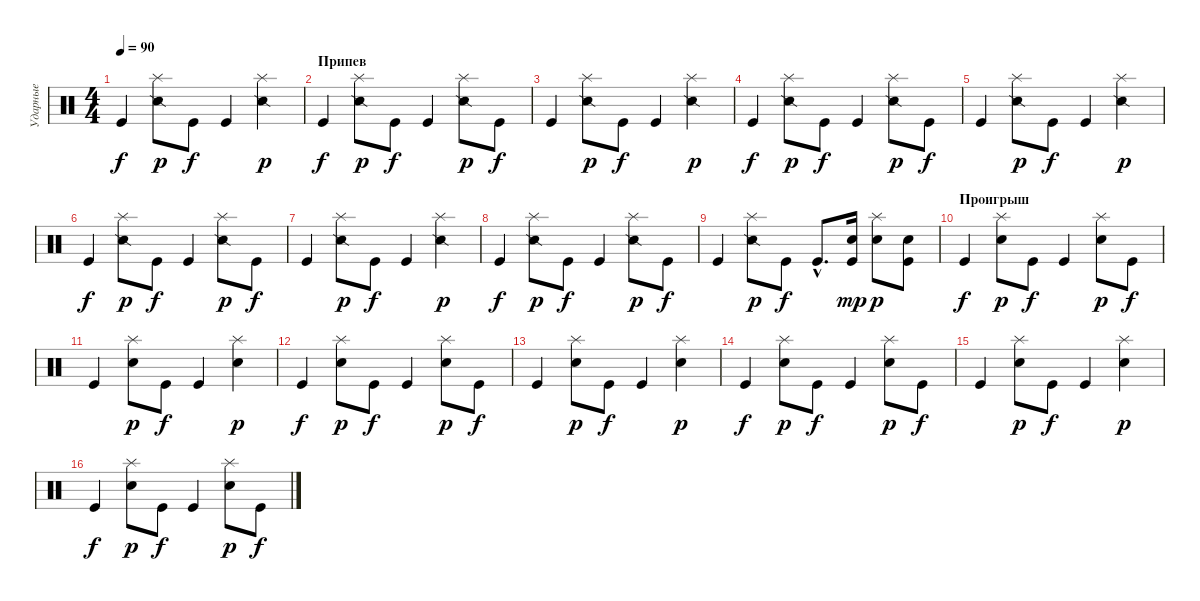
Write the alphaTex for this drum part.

\track ("Ударные" "Ударные") {instrument percussion}
\staff {score}
\articulation defaults
\ts (4 4)
\tempo 90
\clef neutral
\ks c "Kick (hit)".4{dy f}
("Splash (hit)" "Snare (side stick) 2").8{dy p} "Kick (hit)".8{dy f} "Kick (hit)".4 ("Splash (hit)" "Snare (side stick) 2").4{dy p} |
\section ("" "Припев")
"Kick (hit)".4{dy f} ("Splash (hit)" "Snare (side stick) 2").8{dy p} "Kick (hit)".8{dy f} "Kick (hit)".4 ("Splash (hit)" "Snare (side stick) 2").8{dy p} "Kick (hit)".8{dy f} |
"Kick (hit)".4 ("Splash (hit)" "Snare (side stick) 2").8{dy p} "Kick (hit)".8{dy f} "Kick (hit)".4 ("Splash (hit)" "Snare (side stick) 2").4{dy p} |
"Kick (hit)".4{dy f} ("Splash (hit)" "Snare (side stick) 2").8{dy p} "Kick (hit)".8{dy f} "Kick (hit)".4 ("Splash (hit)" "Snare (side stick) 2").8{dy p} "Kick (hit)".8{dy f} |
"Kick (hit)".4 ("Splash (hit)" "Snare (side stick) 2").8{dy p} "Kick (hit)".8{dy f} "Kick (hit)".4 ("Splash (hit)" "Snare (side stick) 2").4{dy p} |
"Kick (hit)".4{dy f} ("Splash (hit)" "Snare (side stick) 2").8{dy p} "Kick (hit)".8{dy f} "Kick (hit)".4 ("Splash (hit)" "Snare (side stick) 2").8{dy p} "Kick (hit)".8{dy f} |
"Kick (hit)".4 ("Splash (hit)" "Snare (side stick) 2").8{dy p} "Kick (hit)".8{dy f} "Kick (hit)".4 ("Splash (hit)" "Snare (side stick) 2").4{dy p} |
"Kick (hit)".4{dy f} ("Splash (hit)" "Snare (side stick) 2").8{dy p} "Kick (hit)".8{dy f} "Kick (hit)".4 ("Splash (hit)" "Snare (side stick) 2").8{dy p} "Kick (hit)".8{dy f} |
"Kick (hit)".4 ("Splash (hit)" "Snare (side stick) 2").8{dy p} "Kick (hit)".8{dy f} "Kick (hit)"{hac}.8{d} ("Snare (hit) 2" "Kick (hit)").16{dy mp} ("Splash (hit)" "Snare (hit) 2").8{dy p} ("Snare (hit) 2" "Kick (hit)").8 |
\section ("" "Проигрыш")
"Kick (hit)".4{dy f} ("Splash (hit)" "Snare (hit) 2").8{dy p} "Kick (hit)".8{dy f} "Kick (hit)".4 ("Splash (hit)" "Snare (hit) 2").8{dy p} "Kick (hit)".8{dy f} |
"Kick (hit)".4 ("Splash (hit)" "Snare (hit) 2").8{dy p} "Kick (hit)".8{dy f} "Kick (hit)".4 ("Splash (hit)" "Snare (hit) 2").4{dy p} |
"Kick (hit)".4{dy f} ("Splash (hit)" "Snare (hit) 2").8{dy p} "Kick (hit)".8{dy f} "Kick (hit)".4 ("Splash (hit)" "Snare (hit) 2").8{dy p} "Kick (hit)".8{dy f} |
"Kick (hit)".4 ("Splash (hit)" "Snare (hit) 2").8{dy p} "Kick (hit)".8{dy f} "Kick (hit)".4 ("Splash (hit)" "Snare (hit) 2").4{dy p} |
"Kick (hit)".4{dy f} ("Splash (hit)" "Snare (hit) 2").8{dy p} "Kick (hit)".8{dy f} "Kick (hit)".4 ("Splash (hit)" "Snare (hit) 2").8{dy p} "Kick (hit)".8{dy f} |
"Kick (hit)".4 ("Splash (hit)" "Snare (hit) 2").8{dy p} "Kick (hit)".8{dy f} "Kick (hit)".4 ("Splash (hit)" "Snare (hit) 2").4{dy p} |
"Kick (hit)".4{dy f} ("Splash (hit)" "Snare (hit) 2").8{dy p} "Kick (hit)".8{dy f} "Kick (hit)".4 ("Splash (hit)" "Snare (hit) 2").8{dy p} "Kick (hit)".8{dy f}
